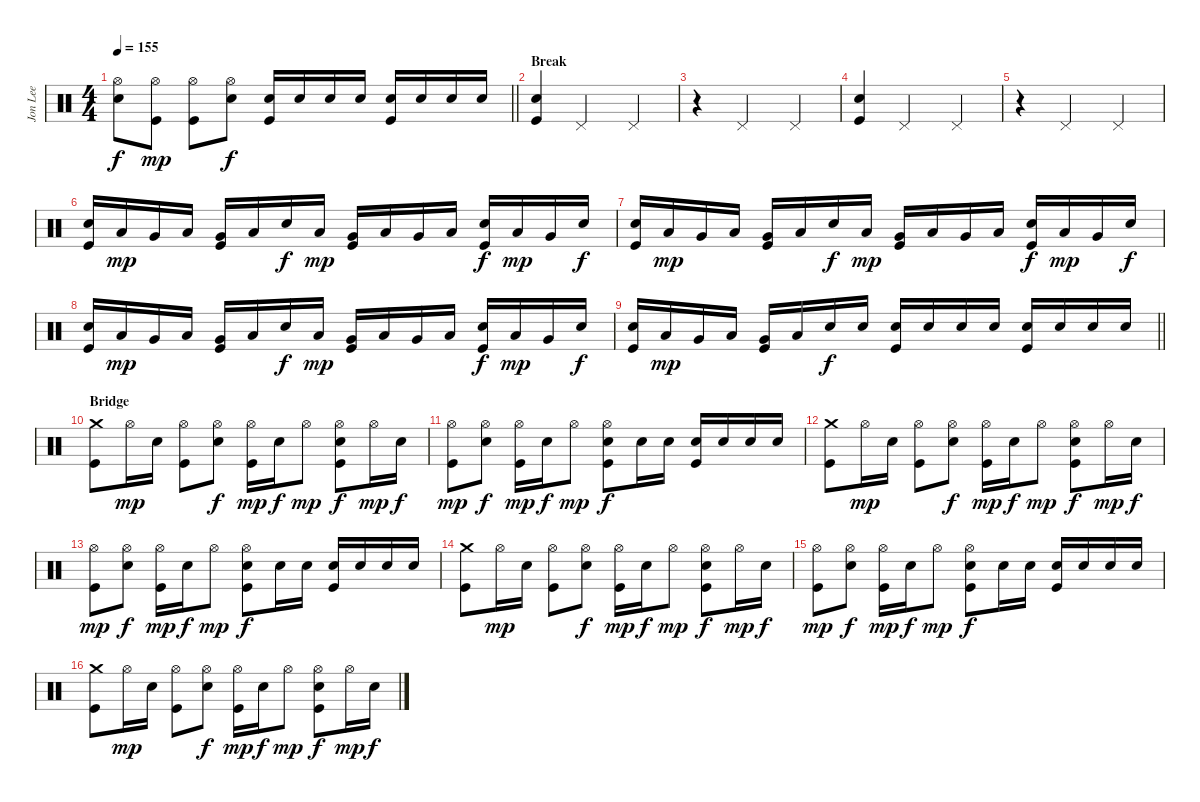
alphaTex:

\track ("Jon Lee" "Jon Lee") {instrument percussion}
\staff {score}
\articulation defaults
\ts (4 4)
\tempo 155
\clef neutral
\barLineRight lightlight
\ks c
("Hi-Hat (open)" "Electric Snare (hit)").8{dy f} ("Hi-Hat (open)" "Kick (hit)").8{dy mp} ("Hi-Hat (open)" "Kick (hit)").8 ("Hi-Hat (open)" "Electric Snare (hit)").8{dy f} ("Electric Snare (hit)" "Kick (hit)").16 "Electric Snare (hit)".16 "Electric Snare (hit)".16 "Electric Snare (hit)".16 ("Electric Snare (hit)" "Kick (hit)").16 "Electric Snare (hit)".16 "Electric Snare (hit)".16 "Electric Snare (hit)".16 |
\section ("" "Break")
("Electric Snare (hit)" "Kick (hit)").4 "Pedal Hi-Hat (hit)".2 "Pedal Hi-Hat (hit)".4 |
r.4 "Pedal Hi-Hat (hit)".2 "Pedal Hi-Hat (hit)".4 |
("Electric Snare (hit)" "Kick (hit)").4 "Pedal Hi-Hat (hit)".2 "Pedal Hi-Hat (hit)".4 |
r.4 "Pedal Hi-Hat (hit)".2 "Pedal Hi-Hat (hit)".4 |
("Electric Snare (hit)" "Kick (hit)").16 "Low Tom (hit)".16{dy mp} "Very Low Tom (hit)".16 "Low Tom (hit)".16 ("Very Low Tom (hit)" "Kick (hit)").16 "Low Tom (hit)".16 "Electric Snare (hit)".16{dy f} "Low Tom (hit)".16{dy mp} ("Very Low Tom (hit)" "Kick (hit)").16 "Low Tom (hit)".16 "Very Low Tom (hit)".16 "Low Tom (hit)".16 ("Electric Snare (hit)" "Kick (hit)").16{dy f} "Low Tom (hit)".16{dy mp} "Very Low Tom (hit)".16 "Electric Snare (hit)".16{dy f} |
("Electric Snare (hit)" "Kick (hit)").16 "Low Tom (hit)".16{dy mp} "Very Low Tom (hit)".16 "Low Tom (hit)".16 ("Very Low Tom (hit)" "Kick (hit)").16 "Low Tom (hit)".16 "Electric Snare (hit)".16{dy f} "Low Tom (hit)".16{dy mp} ("Very Low Tom (hit)" "Kick (hit)").16 "Low Tom (hit)".16 "Very Low Tom (hit)".16 "Low Tom (hit)".16 ("Electric Snare (hit)" "Kick (hit)").16{dy f} "Low Tom (hit)".16{dy mp} "Very Low Tom (hit)".16 "Electric Snare (hit)".16{dy f} |
("Electric Snare (hit)" "Kick (hit)").16 "Low Tom (hit)".16{dy mp} "Very Low Tom (hit)".16 "Low Tom (hit)".16 ("Very Low Tom (hit)" "Kick (hit)").16 "Low Tom (hit)".16 "Electric Snare (hit)".16{dy f} "Low Tom (hit)".16{dy mp} ("Very Low Tom (hit)" "Kick (hit)").16 "Low Tom (hit)".16 "Very Low Tom (hit)".16 "Low Tom (hit)".16 ("Electric Snare (hit)" "Kick (hit)").16{dy f} "Low Tom (hit)".16{dy mp} "Very Low Tom (hit)".16 "Electric Snare (hit)".16{dy f} |
\barLineRight lightlight
("Electric Snare (hit)" "Kick (hit)").16 "Low Tom (hit)".16{dy mp} "Very Low Tom (hit)".16 "Low Tom (hit)".16 ("Very Low Tom (hit)" "Kick (hit)").16 "Low Tom (hit)".16 "Electric Snare (hit)".16{dy f} "Electric Snare (hit)".16 ("Electric Snare (hit)" "Kick (hit)").16 "Electric Snare (hit)".16 "Electric Snare (hit)".16 "Electric Snare (hit)".16 ("Electric Snare (hit)" "Kick (hit)").16 "Electric Snare (hit)".16 "Electric Snare (hit)".16 "Electric Snare (hit)".16 |
\section ("" "Bridge")
("Crash medium (hit)" "Kick (hit)").8 "Hi-Hat (open)".16{dy mp} "Electric Snare (hit)".16 ("Hi-Hat (open)" "Kick (hit)").8 ("Hi-Hat (open)" "Electric Snare (hit)").8{dy f} ("Hi-Hat (open)" "Kick (hit)").16{dy mp} "Electric Snare (hit)".16{dy f} "Hi-Hat (open)".8{dy mp} ("Hi-Hat (open)" "Electric Snare (hit)" "Kick (hit)").8{dy f} "Hi-Hat (open)".16{dy mp} "Electric Snare (hit)".16{dy f} |
("Hi-Hat (open)" "Kick (hit)").8{dy mp} ("Hi-Hat (open)" "Electric Snare (hit)").8{dy f} ("Hi-Hat (open)" "Kick (hit)").16{dy mp} "Electric Snare (hit)".16{dy f} "Hi-Hat (open)".8{dy mp} ("Hi-Hat (open)" "Electric Snare (hit)" "Kick (hit)").8{dy f} "Electric Snare (hit)".16 "Electric Snare (hit)".16 ("Electric Snare (hit)" "Kick (hit)").16 "Electric Snare (hit)".16 "Electric Snare (hit)".16 "Electric Snare (hit)".16 |
("Crash medium (hit)" "Kick (hit)").8 "Hi-Hat (open)".16{dy mp} "Electric Snare (hit)".16 ("Hi-Hat (open)" "Kick (hit)").8 ("Hi-Hat (open)" "Electric Snare (hit)").8{dy f} ("Hi-Hat (open)" "Kick (hit)").16{dy mp} "Electric Snare (hit)".16{dy f} "Hi-Hat (open)".8{dy mp} ("Hi-Hat (open)" "Electric Snare (hit)" "Kick (hit)").8{dy f} "Hi-Hat (open)".16{dy mp} "Electric Snare (hit)".16{dy f} |
("Hi-Hat (open)" "Kick (hit)").8{dy mp} ("Hi-Hat (open)" "Electric Snare (hit)").8{dy f} ("Hi-Hat (open)" "Kick (hit)").16{dy mp} "Electric Snare (hit)".16{dy f} "Hi-Hat (open)".8{dy mp} ("Hi-Hat (open)" "Electric Snare (hit)" "Kick (hit)").8{dy f} "Electric Snare (hit)".16 "Electric Snare (hit)".16 ("Electric Snare (hit)" "Kick (hit)").16 "Electric Snare (hit)".16 "Electric Snare (hit)".16 "Electric Snare (hit)".16 |
("Crash medium (hit)" "Kick (hit)").8 "Hi-Hat (open)".16{dy mp} "Electric Snare (hit)".16 ("Hi-Hat (open)" "Kick (hit)").8 ("Hi-Hat (open)" "Electric Snare (hit)").8{dy f} ("Hi-Hat (open)" "Kick (hit)").16{dy mp} "Electric Snare (hit)".16{dy f} "Hi-Hat (open)".8{dy mp} ("Hi-Hat (open)" "Electric Snare (hit)" "Kick (hit)").8{dy f} "Hi-Hat (open)".16{dy mp} "Electric Snare (hit)".16{dy f} |
("Hi-Hat (open)" "Kick (hit)").8{dy mp} ("Hi-Hat (open)" "Electric Snare (hit)").8{dy f} ("Hi-Hat (open)" "Kick (hit)").16{dy mp} "Electric Snare (hit)".16{dy f} "Hi-Hat (open)".8{dy mp} ("Hi-Hat (open)" "Electric Snare (hit)" "Kick (hit)").8{dy f} "Electric Snare (hit)".16 "Electric Snare (hit)".16 ("Electric Snare (hit)" "Kick (hit)").16 "Electric Snare (hit)".16 "Electric Snare (hit)".16 "Electric Snare (hit)".16 |
("Crash medium (hit)" "Kick (hit)").8 "Hi-Hat (open)".16{dy mp} "Electric Snare (hit)".16 ("Hi-Hat (open)" "Kick (hit)").8 ("Hi-Hat (open)" "Electric Snare (hit)").8{dy f} ("Hi-Hat (open)" "Kick (hit)").16{dy mp} "Electric Snare (hit)".16{dy f} "Hi-Hat (open)".8{dy mp} ("Hi-Hat (open)" "Electric Snare (hit)" "Kick (hit)").8{dy f} "Hi-Hat (open)".16{dy mp} "Electric Snare (hit)".16{dy f}
